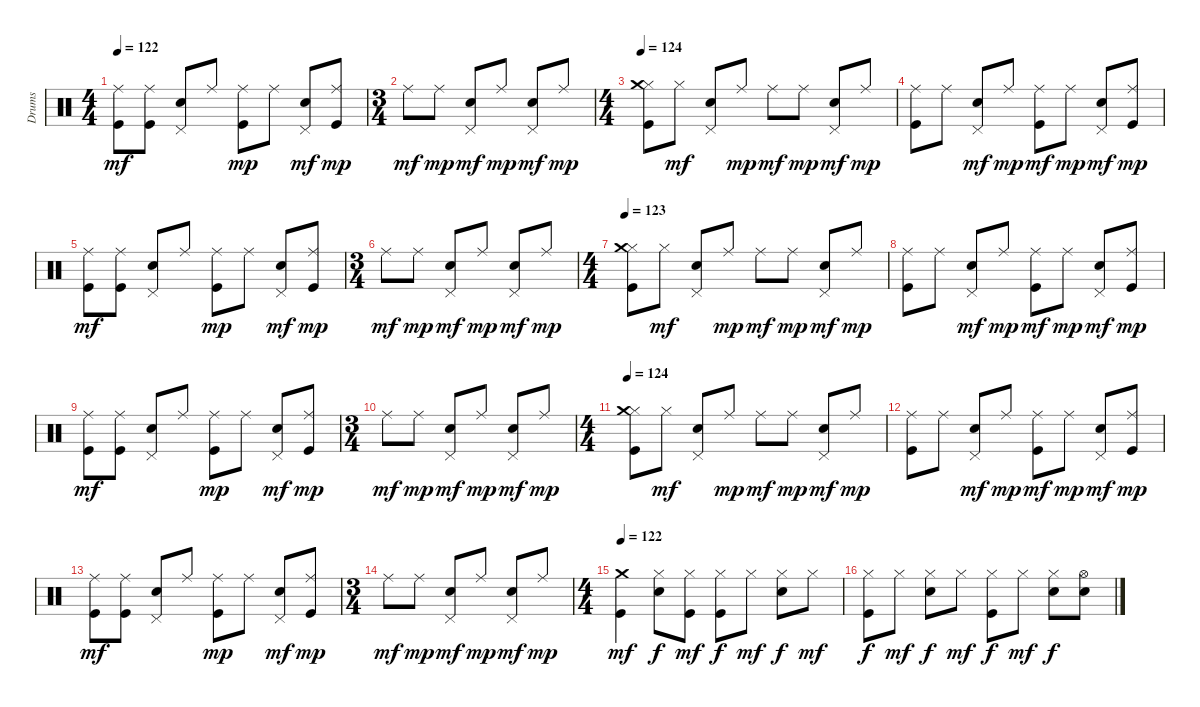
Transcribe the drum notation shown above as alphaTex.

\track ("Drums" "Drums") {instrument percussion}
\staff {score}
\articulation defaults
\ts (4 4)
\tempo 122
\clef neutral
\ks c
("Kick (hit)" "Ride (middle)").8{dy mf} ("Kick (hit)" "Ride (middle)").8 ("Electric Snare (hit)" "Pedal Hi-Hat (hit)").8 "Ride (middle)".8 ("Kick (hit)" "Ride (middle)").8{dy mp} "Ride (middle)".8 ("Electric Snare (hit)" "Pedal Hi-Hat (hit)").8{dy mf} ("Kick (hit)" "Ride (middle)").8{dy mp} |
\ts (3 4)
"Ride (middle)".8{dy mf} "Ride (middle)".8{dy mp} ("Electric Snare (hit)" "Pedal Hi-Hat (hit)").8{dy mf} "Ride (middle)".8{dy mp} ("Electric Snare (hit)" "Pedal Hi-Hat (hit)").8{dy mf} "Ride (middle)".8{dy mp} |
\ts (4 4)
\tempo 124
("Kick (hit)" "Hi-Hat (closed)" "Crash medium (hit)").8 "Hi-Hat (closed)".8{dy mf} ("Electric Snare (hit)" "Pedal Hi-Hat (hit)").8 "Ride (middle)".8{dy mp} "Ride (middle)".8{dy mf} "Ride (middle)".8{dy mp} ("Electric Snare (hit)" "Pedal Hi-Hat (hit)").8{dy mf} "Ride (middle)".8{dy mp} |
("Kick (hit)" "Ride (middle)").8 "Ride (middle)".8 ("Electric Snare (hit)" "Pedal Hi-Hat (hit)").8{dy mf} "Ride (middle)".8{dy mp} ("Kick (hit)" "Ride (middle)").8{dy mf} "Ride (middle)".8{dy mp} ("Electric Snare (hit)" "Pedal Hi-Hat (hit)").8{dy mf} ("Kick (hit)" "Ride (middle)").8{dy mp} |
("Kick (hit)" "Ride (middle)").8{dy mf} ("Kick (hit)" "Ride (middle)").8 ("Electric Snare (hit)" "Pedal Hi-Hat (hit)").8 "Ride (middle)".8 ("Kick (hit)" "Ride (middle)").8{dy mp} "Ride (middle)".8 ("Electric Snare (hit)" "Pedal Hi-Hat (hit)").8{dy mf} ("Kick (hit)" "Ride (middle)").8{dy mp} |
\ts (3 4)
"Ride (middle)".8{dy mf} "Ride (middle)".8{dy mp} ("Electric Snare (hit)" "Pedal Hi-Hat (hit)").8{dy mf} "Ride (middle)".8{dy mp} ("Electric Snare (hit)" "Pedal Hi-Hat (hit)").8{dy mf} "Ride (middle)".8{dy mp} |
\ts (4 4)
\tempo 123
("Kick (hit)" "Hi-Hat (closed)" "Crash medium (hit)").8 "Hi-Hat (closed)".8{dy mf} ("Electric Snare (hit)" "Pedal Hi-Hat (hit)").8 "Ride (middle)".8{dy mp} "Ride (middle)".8{dy mf} "Ride (middle)".8{dy mp} ("Electric Snare (hit)" "Pedal Hi-Hat (hit)").8{dy mf} "Ride (middle)".8{dy mp} |
("Kick (hit)" "Ride (middle)").8 "Ride (middle)".8 ("Electric Snare (hit)" "Pedal Hi-Hat (hit)").8{dy mf} "Ride (middle)".8{dy mp} ("Kick (hit)" "Ride (middle)").8{dy mf} "Ride (middle)".8{dy mp} ("Electric Snare (hit)" "Pedal Hi-Hat (hit)").8{dy mf} ("Kick (hit)" "Ride (middle)").8{dy mp} |
("Kick (hit)" "Ride (middle)").8{dy mf} ("Kick (hit)" "Ride (middle)").8 ("Electric Snare (hit)" "Pedal Hi-Hat (hit)").8 "Ride (middle)".8 ("Kick (hit)" "Ride (middle)").8{dy mp} "Ride (middle)".8 ("Electric Snare (hit)" "Pedal Hi-Hat (hit)").8{dy mf} ("Kick (hit)" "Ride (middle)").8{dy mp} |
\ts (3 4)
"Ride (middle)".8{dy mf} "Ride (middle)".8{dy mp} ("Electric Snare (hit)" "Pedal Hi-Hat (hit)").8{dy mf} "Ride (middle)".8{dy mp} ("Electric Snare (hit)" "Pedal Hi-Hat (hit)").8{dy mf} "Ride (middle)".8{dy mp} |
\ts (4 4)
\tempo 124
("Kick (hit)" "Hi-Hat (closed)" "Crash medium (hit)").8 "Hi-Hat (closed)".8{dy mf} ("Electric Snare (hit)" "Pedal Hi-Hat (hit)").8 "Ride (middle)".8{dy mp} "Ride (middle)".8{dy mf} "Ride (middle)".8{dy mp} ("Electric Snare (hit)" "Pedal Hi-Hat (hit)").8{dy mf} "Ride (middle)".8{dy mp} |
("Kick (hit)" "Ride (middle)").8 "Ride (middle)".8 ("Electric Snare (hit)" "Pedal Hi-Hat (hit)").8{dy mf} "Ride (middle)".8{dy mp} ("Kick (hit)" "Ride (middle)").8{dy mf} "Ride (middle)".8{dy mp} ("Electric Snare (hit)" "Pedal Hi-Hat (hit)").8{dy mf} ("Kick (hit)" "Ride (middle)").8{dy mp} |
("Kick (hit)" "Ride (middle)").8{dy mf} ("Kick (hit)" "Ride (middle)").8 ("Electric Snare (hit)" "Pedal Hi-Hat (hit)").8 "Ride (middle)".8 ("Kick (hit)" "Ride (middle)").8{dy mp} "Ride (middle)".8 ("Electric Snare (hit)" "Pedal Hi-Hat (hit)").8{dy mf} ("Kick (hit)" "Ride (middle)").8{dy mp} |
\ts (3 4)
"Ride (middle)".8{dy mf} "Ride (middle)".8{dy mp} ("Electric Snare (hit)" "Pedal Hi-Hat (hit)").8{dy mf} "Ride (middle)".8{dy mp} ("Electric Snare (hit)" "Pedal Hi-Hat (hit)").8{dy mf} "Ride (middle)".8{dy mp} |
\ts (4 4)
\tempo 122
("Kick (hit)" "Crash medium (hit)").4{dy mf} ("Electric Snare (hit)" "Hi-Hat (closed)").8{dy f} ("Kick (hit)" "Hi-Hat (closed)").8{dy mf} ("Kick (hit)" "Hi-Hat (closed)").8{dy f} "Hi-Hat (closed)".8{dy mf} ("Electric Snare (hit)" "Hi-Hat (closed)").8{dy f} "Hi-Hat (closed)".8{dy mf} |
("Kick (hit)" "Hi-Hat (closed)").8{dy f} "Hi-Hat (closed)".8{dy mf} ("Electric Snare (hit)" "Hi-Hat (closed)").8{dy f} "Hi-Hat (closed)".8{dy mf} ("Kick (hit)" "Hi-Hat (closed)").8{dy f} "Hi-Hat (closed)".8{dy mf} ("Electric Snare (hit)" "Hi-Hat (closed)").8{dy f} ("Electric Snare (hit)" "Hi-Hat (open)").8
